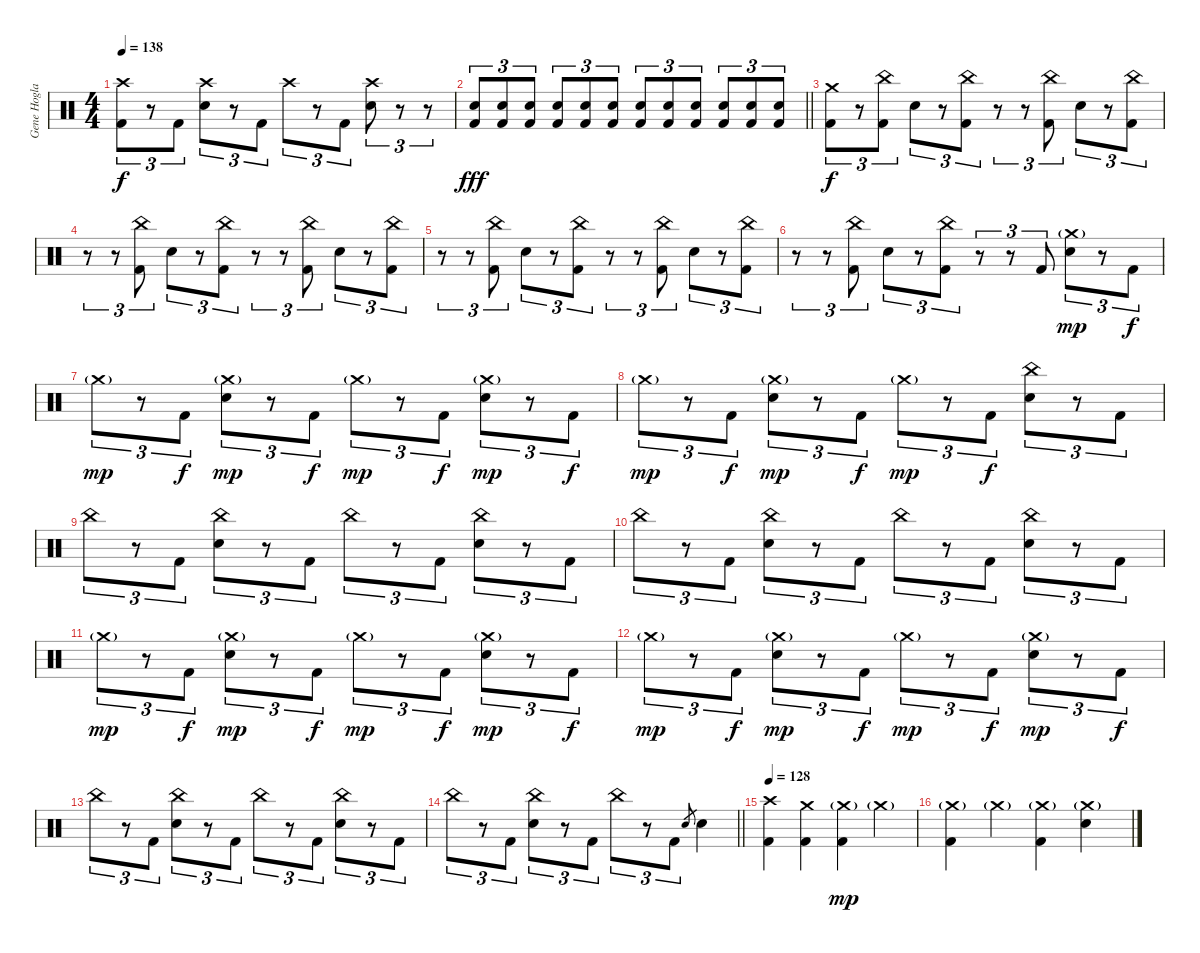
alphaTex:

\track ("Gene Hoglan" "Gene Hogla") {instrument percussion}
\staff {score}
\articulation defaults
\ts (4 4)
\tempo 138
\clef neutral
\ks c
("Crash high (hit)" "Kick (hit) 2").8{tu (3 2) dy f} r.8{tu (3 2)} "Kick (hit) 2".8{tu (3 2)} ("Crash high (hit)" "Electric Snare (hit)").8{tu (3 2)} r.8{tu (3 2)} "Kick (hit) 2".8{tu (3 2)} "Crash high (hit)".8{tu (3 2)} r.8{tu (3 2)} "Kick (hit) 2".8{tu (3 2)} ("Crash high (hit)" "Electric Snare (hit)").8{tu (3 2)} r.8{tu (3 2)} r.8{tu (3 2)} |
\barLineRight lightlight
("Electric Snare (hit)" "Kick (hit) 2").8{tu (3 2) dy fff} ("Electric Snare (hit)" "Kick (hit) 2").8{tu (3 2)} ("Electric Snare (hit)" "Kick (hit) 2").8{tu (3 2)} ("Electric Snare (hit)" "Kick (hit) 2").8{tu (3 2)} ("Electric Snare (hit)" "Kick (hit) 2").8{tu (3 2)} ("Electric Snare (hit)" "Kick (hit) 2").8{tu (3 2)} ("Electric Snare (hit)" "Kick (hit) 2").8{tu (3 2)} ("Electric Snare (hit)" "Kick (hit) 2").8{tu (3 2)} ("Electric Snare (hit)" "Kick (hit) 2").8{tu (3 2)} ("Electric Snare (hit)" "Kick (hit) 2").8{tu (3 2)} ("Electric Snare (hit)" "Kick (hit) 2").8{tu (3 2)} ("Electric Snare (hit)" "Kick (hit) 2").8{tu (3 2)} |
("Crash medium (hit)" "Kick (hit) 2").8{tu (3 2) dy f} r.8{tu (3 2)} ("China (hit)" "Kick (hit) 2").8{tu (3 2)} "Electric Snare (hit)".8{tu (3 2)} r.8{tu (3 2)} ("China (hit)" "Kick (hit) 2").8{tu (3 2)} r.8{tu (3 2)} r.8{tu (3 2)} ("China (hit)" "Kick (hit) 2").8{tu (3 2)} "Electric Snare (hit)".8{tu (3 2)} r.8{tu (3 2)} ("China (hit)" "Kick (hit) 2").8{tu (3 2)} |
r.8{tu (3 2)} r.8{tu (3 2)} ("China (hit)" "Kick (hit) 2").8{tu (3 2)} "Electric Snare (hit)".8{tu (3 2)} r.8{tu (3 2)} ("China (hit)" "Kick (hit) 2").8{tu (3 2)} r.8{tu (3 2)} r.8{tu (3 2)} ("China (hit)" "Kick (hit) 2").8{tu (3 2)} "Electric Snare (hit)".8{tu (3 2)} r.8{tu (3 2)} ("China (hit)" "Kick (hit) 2").8{tu (3 2)} |
r.8{tu (3 2)} r.8{tu (3 2)} ("China (hit)" "Kick (hit) 2").8{tu (3 2)} "Electric Snare (hit)".8{tu (3 2)} r.8{tu (3 2)} ("China (hit)" "Kick (hit) 2").8{tu (3 2)} r.8{tu (3 2)} r.8{tu (3 2)} ("China (hit)" "Kick (hit) 2").8{tu (3 2)} "Electric Snare (hit)".8{tu (3 2)} r.8{tu (3 2)} ("China (hit)" "Kick (hit) 2").8{tu (3 2)} |
r.8{tu (3 2)} r.8{tu (3 2)} ("China (hit)" "Kick (hit) 2").8{tu (3 2)} "Electric Snare (hit)".8{tu (3 2)} r.8{tu (3 2)} ("China (hit)" "Kick (hit) 2").8{tu (3 2)} r.8{tu (3 2)} r.8{tu (3 2)} "Kick (hit) 2".8{tu (3 2)} ("Crash medium (hit)"{g} "Electric Snare (hit)").8{tu (3 2) dy mp} r.8{tu (3 2)} "Kick (hit) 2".8{tu (3 2) dy f} |
"Crash medium (hit)"{g}.8{tu (3 2) dy mp} r.8{tu (3 2)} "Kick (hit) 2".8{tu (3 2) dy f} ("Crash medium (hit)"{g} "Electric Snare (hit)").8{tu (3 2) dy mp} r.8{tu (3 2)} "Kick (hit) 2".8{tu (3 2) dy f} "Crash medium (hit)"{g}.8{tu (3 2) dy mp} r.8{tu (3 2)} "Kick (hit) 2".8{tu (3 2) dy f} ("Crash medium (hit)"{g} "Electric Snare (hit)").8{tu (3 2) dy mp} r.8{tu (3 2)} "Kick (hit) 2".8{tu (3 2) dy f} |
"Crash medium (hit)"{g}.8{tu (3 2) dy mp} r.8{tu (3 2)} "Kick (hit) 2".8{tu (3 2) dy f} ("Crash medium (hit)"{g} "Electric Snare (hit)").8{tu (3 2) dy mp} r.8{tu (3 2)} "Kick (hit) 2".8{tu (3 2) dy f} "Crash medium (hit)"{g}.8{tu (3 2) dy mp} r.8{tu (3 2)} "Kick (hit) 2".8{tu (3 2) dy f} ("China (hit)" "Electric Snare (hit)").8{tu (3 2)} r.8{tu (3 2)} "Kick (hit) 2".8{tu (3 2)} |
"China (hit)".8{tu (3 2)} r.8{tu (3 2)} "Kick (hit) 2".8{tu (3 2)} ("China (hit)" "Electric Snare (hit)").8{tu (3 2)} r.8{tu (3 2)} "Kick (hit) 2".8{tu (3 2)} "China (hit)".8{tu (3 2)} r.8{tu (3 2)} "Kick (hit) 2".8{tu (3 2)} ("China (hit)" "Electric Snare (hit)").8{tu (3 2)} r.8{tu (3 2)} "Kick (hit) 2".8{tu (3 2)} |
"China (hit)".8{tu (3 2)} r.8{tu (3 2)} "Kick (hit) 2".8{tu (3 2)} ("China (hit)" "Electric Snare (hit)").8{tu (3 2)} r.8{tu (3 2)} "Kick (hit) 2".8{tu (3 2)} "China (hit)".8{tu (3 2)} r.8{tu (3 2)} "Kick (hit) 2".8{tu (3 2)} ("China (hit)" "Electric Snare (hit)").8{tu (3 2)} r.8{tu (3 2)} "Kick (hit) 2".8{tu (3 2)} |
"Crash medium (hit)"{g}.8{tu (3 2) dy mp} r.8{tu (3 2)} "Kick (hit) 2".8{tu (3 2) dy f} ("Crash medium (hit)"{g} "Electric Snare (hit)").8{tu (3 2) dy mp} r.8{tu (3 2)} "Kick (hit) 2".8{tu (3 2) dy f} "Crash medium (hit)"{g}.8{tu (3 2) dy mp} r.8{tu (3 2)} "Kick (hit) 2".8{tu (3 2) dy f} ("Crash medium (hit)"{g} "Electric Snare (hit)").8{tu (3 2) dy mp} r.8{tu (3 2)} "Kick (hit) 2".8{tu (3 2) dy f} |
"Crash medium (hit)"{g}.8{tu (3 2) dy mp} r.8{tu (3 2)} "Kick (hit) 2".8{tu (3 2) dy f} ("Crash medium (hit)"{g} "Electric Snare (hit)").8{tu (3 2) dy mp} r.8{tu (3 2)} "Kick (hit) 2".8{tu (3 2) dy f} "Crash medium (hit)"{g}.8{tu (3 2) dy mp} r.8{tu (3 2)} "Kick (hit) 2".8{tu (3 2) dy f} ("Crash medium (hit)"{g} "Electric Snare (hit)").8{tu (3 2) dy mp} r.8{tu (3 2)} "Kick (hit) 2".8{tu (3 2) dy f} |
"China (hit)".8{tu (3 2)} r.8{tu (3 2)} "Kick (hit) 2".8{tu (3 2)} ("China (hit)" "Electric Snare (hit)").8{tu (3 2)} r.8{tu (3 2)} "Kick (hit) 2".8{tu (3 2)} "China (hit)".8{tu (3 2)} r.8{tu (3 2)} "Kick (hit) 2".8{tu (3 2)} ("China (hit)" "Electric Snare (hit)").8{tu (3 2)} r.8{tu (3 2)} "Kick (hit) 2".8{tu (3 2)} |
\barLineRight lightlight "China (hit)".8{tu (3 2)}
r.8{tu (3 2)} "Kick (hit) 2".8{tu (3 2)} ("China (hit)" "Electric Snare (hit)").8{tu (3 2)} r.8{tu (3 2)} "Kick (hit) 2".8{tu (3 2)} "China (hit)".8{tu (3 2)} r.8{tu (3 2)} "Kick (hit) 2".8{tu (3 2)} "Electric Snare (hit)".8{gr} "Electric Snare (hit)".4 |
\tempo 128
("Crash high (hit)" "Kick (hit) 2").4 ("Crash medium (hit)" "Kick (hit) 2").4 ("Crash medium (hit)"{g} "Kick (hit) 2").4{dy mp} "Crash medium (hit)"{g}.4 |
("Crash medium (hit)"{g} "Kick (hit) 2").4 "Crash medium (hit)"{g}.4 ("Crash medium (hit)"{g} "Kick (hit) 2").4 ("Crash medium (hit)"{g} "Electric Snare (hit)").4
